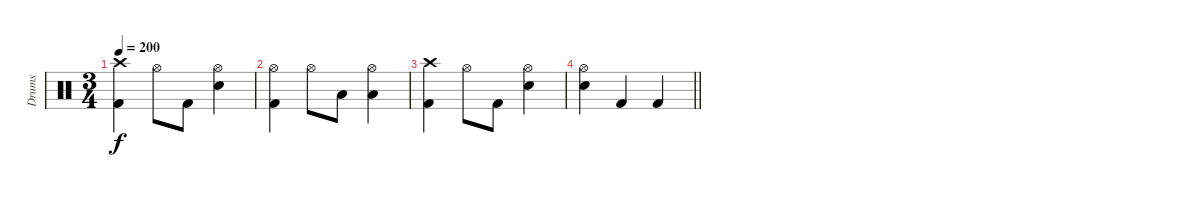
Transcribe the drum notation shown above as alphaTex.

\track ("Drums" "Drums") {instrument percussion}
\staff {score}
\articulation defaults
\ts (3 4)
\tempo 200
\clef neutral
\ks c
("Crash high (hit)" "Kick (hit) 2").4{dy f} "Hi-Hat (open)".8 "Kick (hit) 2".8 ("Hi-Hat (open)" "Electric Snare (hit)").4 |
("Hi-Hat (open)" "Kick (hit) 2").4 "Hi-Hat (open)".8 "Low Floor Tom (hit)".8 ("Hi-Hat (open)" "Low Floor Tom (hit)").4 |
("Crash high (hit)" "Kick (hit) 2").4 "Hi-Hat (open)".8 "Kick (hit) 2".8 ("Hi-Hat (open)" "Electric Snare (hit)").4 |
\barLineRight lightlight
("Hi-Hat (open)" "Electric Snare (hit)").4 "Kick (hit) 2".4 "Kick (hit) 2".4
